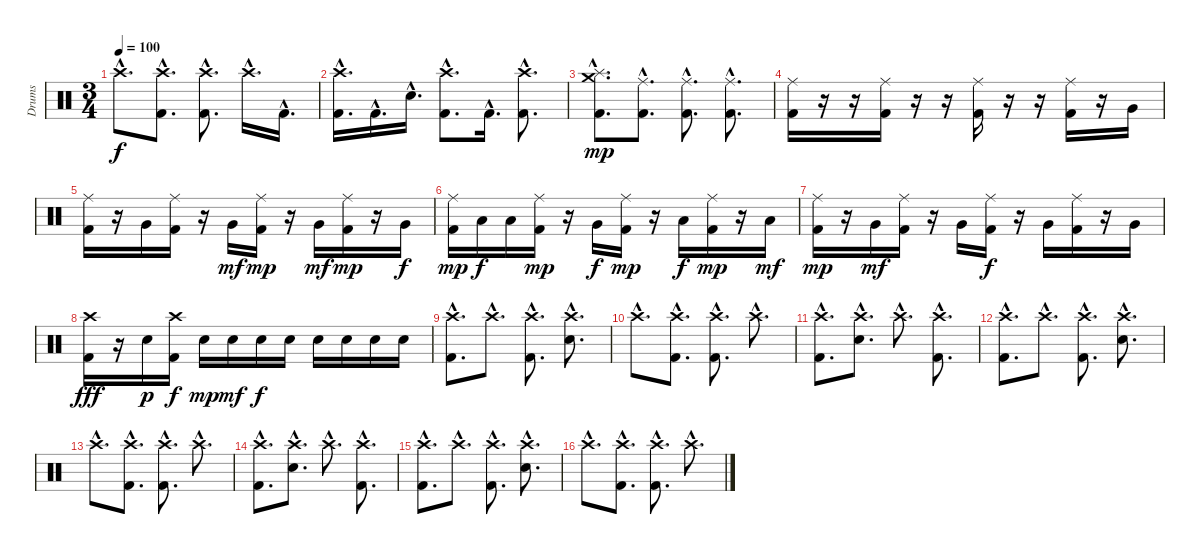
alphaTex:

\track ("Drums" "Drums") {instrument percussion}
\staff {score}
\articulation defaults
\ts (3 4)
\tempo 100
\clef neutral
\ks c "Crash high (hit)"{hac}.8{d dy f}
("Crash high (hit)"{hac} "Kick (hit) 2"{hac}).8{d} ("Crash high (hit)"{hac} "Kick (hit) 2"{hac}).8{d} "Crash high (hit)"{hac}.16{d} "Kick (hit) 2"{hac}.16{d} |
("Crash high (hit)"{hac} "Kick (hit) 2"{hac}).16{d} "Kick (hit) 2"{hac}.16{d} "Electric Snare (hit)"{hac}.16{d} ("Crash high (hit)"{hac} "Kick (hit) 2"{hac}).8{d} "Kick (hit) 2"{hac}.16{d} ("Crash high (hit)"{hac} "Kick (hit) 2"{hac}).8{d} |
("Crash medium (hit)"{hac} "Splash (hit)"{hac} "Kick (hit) 2"{hac}).8{d dy mp} ("Ride (middle)"{hac} "Kick (hit) 2"{hac}).8{d} ("Ride (middle)"{hac} "Kick (hit) 2"{hac}).8{d} ("Ride (middle)"{hac} "Kick (hit) 2"{hac}).8{d} |
("Ride (middle)" "Kick (hit) 2").16 r.16 r.16 ("Ride (middle)" "Kick (hit) 2").16 r.16 r.16 ("Ride (middle)" "Kick (hit) 2").16 r.16 r.16 ("Ride (middle)" "Kick (hit) 2").16 r.16 "Very Low Tom (hit)".16 |
("Ride (middle)" "Kick (hit) 2").16 r.16 "Very Low Tom (hit)".16 ("Ride (middle)" "Kick (hit) 2").16 r.16 "Very Low Tom (hit)".16{dy mf} ("Ride (middle)" "Kick (hit) 2").16{dy mp} r.16 "Very Low Tom (hit)".16{dy mf} ("Ride (middle)" "Kick (hit) 2").16{dy mp} r.16 "Very Low Tom (hit)".16{dy f} |
("Ride (middle)" "Kick (hit) 2").16{dy mp} "Low Tom (hit)".16{dy f} "Low Tom (hit)".16 ("Ride (middle)" "Kick (hit) 2").16{dy mp} r.16 "Very Low Tom (hit)".16{dy f} ("Ride (middle)" "Kick (hit) 2").16{dy mp} r.16 "Low Floor Tom (hit)".16{dy f} ("Ride (middle)" "Kick (hit) 2").16{dy mp} r.16 "Low Floor Tom (hit)".16{dy mf} |
("Ride (middle)" "Kick (hit) 2").16{dy mp} r.16 "Very Low Tom (hit)".16{dy mf} ("Ride (middle)" "Kick (hit) 2").16 r.16 "Very Low Tom (hit)".16 ("Ride (middle)" "Kick (hit) 2").16{dy f} r.16 "Very Low Tom (hit)".16 ("Ride (middle)" "Kick (hit) 2").16 r.16 "Very Low Tom (hit)".16 |
("Crash high (hit)" "Kick (hit) 2").16{dy fff} r.16 "Electric Snare (hit)".16{dy p} ("Crash high (hit)" "Kick (hit) 2").16{dy f} "Electric Snare (hit)".16{dy mp} "Electric Snare (hit)".16{dy mf} "Electric Snare (hit)".16{dy f} "Electric Snare (hit)".16 "Electric Snare (hit)".16 "Electric Snare (hit)".16 "Electric Snare (hit)".16 "Electric Snare (hit)".16 |
("Crash high (hit)"{hac} "Kick (hit) 2"{hac}).8{d} "Crash high (hit)"{hac}.8{d} ("Crash high (hit)"{hac} "Kick (hit) 2"{hac}).8{d} ("Crash high (hit)"{hac} "Electric Snare (hit)"{hac}).8{d} |
"Crash high (hit)"{hac}.8{d} ("Crash high (hit)"{hac} "Kick (hit) 2"{hac}).8{d} ("Crash high (hit)"{hac} "Kick (hit) 2"{hac}).8{d} "Crash high (hit)"{hac}.8{d} |
("Crash high (hit)"{hac} "Kick (hit) 2"{hac}).8{d} ("Crash high (hit)"{hac} "Electric Snare (hit)"{hac}).8{d} "Crash high (hit)"{hac}.8{d} ("Crash high (hit)"{hac} "Kick (hit) 2"{hac}).8{d} |
("Crash high (hit)"{hac} "Kick (hit) 2"{hac}).8{d} "Crash high (hit)"{hac}.8{d} ("Crash high (hit)"{hac} "Kick (hit) 2"{hac}).8{d} ("Crash high (hit)"{hac} "Electric Snare (hit)"{hac}).8{d} |
"Crash high (hit)"{hac}.8{d} ("Crash high (hit)"{hac} "Kick (hit) 2"{hac}).8{d} ("Crash high (hit)"{hac} "Kick (hit) 2"{hac}).8{d} "Crash high (hit)"{hac}.8{d} |
("Crash high (hit)"{hac} "Kick (hit) 2"{hac}).8{d} ("Crash high (hit)"{hac} "Electric Snare (hit)"{hac}).8{d} "Crash high (hit)"{hac}.8{d} ("Crash high (hit)"{hac} "Kick (hit) 2"{hac}).8{d} |
("Crash high (hit)"{hac} "Kick (hit) 2"{hac}).8{d} "Crash high (hit)"{hac}.8{d} ("Crash high (hit)"{hac} "Kick (hit) 2"{hac}).8{d} ("Crash high (hit)"{hac} "Electric Snare (hit)"{hac}).8{d} |
"Crash high (hit)"{hac}.8{d} ("Crash high (hit)"{hac} "Kick (hit) 2"{hac}).8{d} ("Crash high (hit)"{hac} "Kick (hit) 2"{hac}).8{d} "Crash high (hit)"{hac}.8{d}
